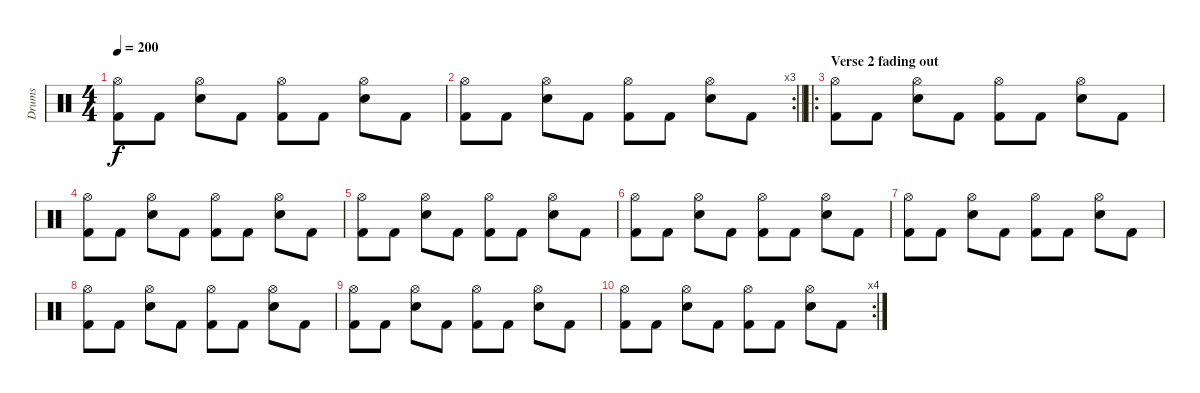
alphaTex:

\track ("Drums" "Drums") {instrument percussion}
\staff {score}
\articulation defaults
\ts (4 4)
\tempo 200
\clef neutral
\ks c
("Kick (hit) 2" "Hi-Hat (open)").8{dy f} "Kick (hit) 2".8 ("Snare (hit) 2" "Hi-Hat (open)").8 "Kick (hit) 2".8 ("Kick (hit) 2" "Hi-Hat (open)").8 "Kick (hit) 2".8 ("Snare (hit) 2" "Hi-Hat (open)").8 "Kick (hit) 2".8 |
\rc 3
\barLineRight lightlight
("Kick (hit) 2" "Hi-Hat (open)").8 "Kick (hit) 2".8 ("Snare (hit) 2" "Hi-Hat (open)").8 "Kick (hit) 2".8 ("Kick (hit) 2" "Hi-Hat (open)").8 "Kick (hit) 2".8 ("Snare (hit) 2" "Hi-Hat (open)").8 "Kick (hit) 2".8 |
\ro
\section ("" "Verse 2 fading out")
("Kick (hit) 2" "Hi-Hat (open)").8 "Kick (hit) 2".8 ("Snare (hit) 2" "Hi-Hat (open)").8 "Kick (hit) 2".8 ("Kick (hit) 2" "Hi-Hat (open)").8 "Kick (hit) 2".8 ("Snare (hit) 2" "Hi-Hat (open)").8 "Kick (hit) 2".8 |
("Kick (hit) 2" "Hi-Hat (open)").8 "Kick (hit) 2".8 ("Snare (hit) 2" "Hi-Hat (open)").8 "Kick (hit) 2".8 ("Kick (hit) 2" "Hi-Hat (open)").8 "Kick (hit) 2".8 ("Snare (hit) 2" "Hi-Hat (open)").8 "Kick (hit) 2".8 |
("Kick (hit) 2" "Hi-Hat (open)").8 "Kick (hit) 2".8 ("Snare (hit) 2" "Hi-Hat (open)").8 "Kick (hit) 2".8 ("Kick (hit) 2" "Hi-Hat (open)").8 "Kick (hit) 2".8 ("Snare (hit) 2" "Hi-Hat (open)").8 "Kick (hit) 2".8 |
("Kick (hit) 2" "Hi-Hat (open)").8 "Kick (hit) 2".8 ("Snare (hit) 2" "Hi-Hat (open)").8 "Kick (hit) 2".8 ("Kick (hit) 2" "Hi-Hat (open)").8 "Kick (hit) 2".8 ("Snare (hit) 2" "Hi-Hat (open)").8 "Kick (hit) 2".8 |
("Kick (hit) 2" "Hi-Hat (open)").8 "Kick (hit) 2".8 ("Snare (hit) 2" "Hi-Hat (open)").8 "Kick (hit) 2".8 ("Kick (hit) 2" "Hi-Hat (open)").8 "Kick (hit) 2".8 ("Snare (hit) 2" "Hi-Hat (open)").8 "Kick (hit) 2".8 |
("Kick (hit) 2" "Hi-Hat (open)").8 "Kick (hit) 2".8 ("Snare (hit) 2" "Hi-Hat (open)").8 "Kick (hit) 2".8 ("Kick (hit) 2" "Hi-Hat (open)").8 "Kick (hit) 2".8 ("Snare (hit) 2" "Hi-Hat (open)").8 "Kick (hit) 2".8 |
("Kick (hit) 2" "Hi-Hat (open)").8 "Kick (hit) 2".8 ("Snare (hit) 2" "Hi-Hat (open)").8 "Kick (hit) 2".8 ("Kick (hit) 2" "Hi-Hat (open)").8 "Kick (hit) 2".8 ("Snare (hit) 2" "Hi-Hat (open)").8 "Kick (hit) 2".8 |
\rc 4
("Kick (hit) 2" "Hi-Hat (open)").8 "Kick (hit) 2".8 ("Snare (hit) 2" "Hi-Hat (open)").8 "Kick (hit) 2".8 ("Kick (hit) 2" "Hi-Hat (open)").8 "Kick (hit) 2".8 ("Snare (hit) 2" "Hi-Hat (open)").8 "Kick (hit) 2".8
